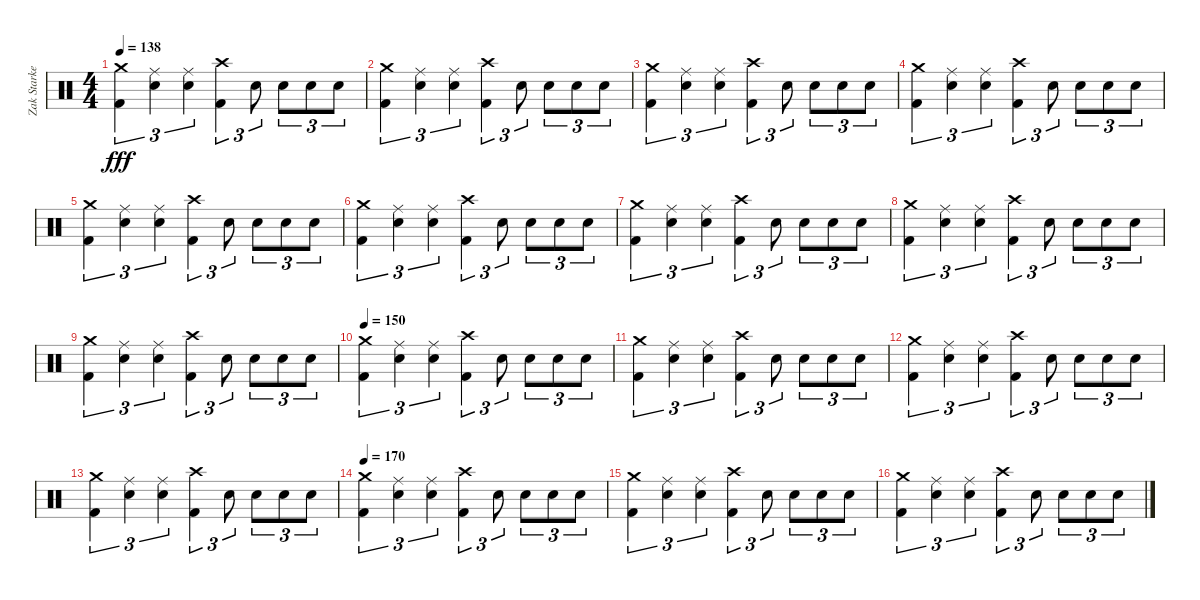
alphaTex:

\track ("Zak Starkey" "Zak Starke") {instrument percussion}
\staff {score}
\articulation defaults
\ts (4 4)
\tempo 138
\clef neutral
\ks c
("Crash medium (hit)" "Kick (hit) 2").4{tu (3 2) dy fff} ("Ride (middle)" "Snare (hit) 2").4{tu (3 2)} ("Ride (middle)" "Snare (hit) 2").4{tu (3 2)} ("Crash high (hit)" "Kick (hit) 2").4{tu (3 2)} "Snare (hit) 2".8{tu (3 2)} "Snare (hit) 2".8{tu (3 2)} "Snare (hit) 2".8{tu (3 2)} "Snare (hit) 2".8{tu (3 2)} |
("Crash medium (hit)" "Kick (hit) 2").4{tu (3 2)} ("Ride (middle)" "Snare (hit) 2").4{tu (3 2)} ("Ride (middle)" "Snare (hit) 2").4{tu (3 2)} ("Crash high (hit)" "Kick (hit) 2").4{tu (3 2)} "Snare (hit) 2".8{tu (3 2)} "Snare (hit) 2".8{tu (3 2)} "Snare (hit) 2".8{tu (3 2)} "Snare (hit) 2".8{tu (3 2)} |
("Crash medium (hit)" "Kick (hit) 2").4{tu (3 2)} ("Ride (middle)" "Snare (hit) 2").4{tu (3 2)} ("Ride (middle)" "Snare (hit) 2").4{tu (3 2)} ("Crash high (hit)" "Kick (hit) 2").4{tu (3 2)} "Snare (hit) 2".8{tu (3 2)} "Snare (hit) 2".8{tu (3 2)} "Snare (hit) 2".8{tu (3 2)} "Snare (hit) 2".8{tu (3 2)} |
("Crash medium (hit)" "Kick (hit) 2").4{tu (3 2)} ("Ride (middle)" "Snare (hit) 2").4{tu (3 2)} ("Ride (middle)" "Snare (hit) 2").4{tu (3 2)} ("Crash high (hit)" "Kick (hit) 2").4{tu (3 2)} "Snare (hit) 2".8{tu (3 2)} "Snare (hit) 2".8{tu (3 2)} "Snare (hit) 2".8{tu (3 2)} "Snare (hit) 2".8{tu (3 2)} |
("Crash medium (hit)" "Kick (hit) 2").4{tu (3 2)} ("Ride (middle)" "Snare (hit) 2").4{tu (3 2)} ("Ride (middle)" "Snare (hit) 2").4{tu (3 2)} ("Crash high (hit)" "Kick (hit) 2").4{tu (3 2)} "Snare (hit) 2".8{tu (3 2)} "Snare (hit) 2".8{tu (3 2)} "Snare (hit) 2".8{tu (3 2)} "Snare (hit) 2".8{tu (3 2)} |
("Crash medium (hit)" "Kick (hit) 2").4{tu (3 2)} ("Ride (middle)" "Snare (hit) 2").4{tu (3 2)} ("Ride (middle)" "Snare (hit) 2").4{tu (3 2)} ("Crash high (hit)" "Kick (hit) 2").4{tu (3 2)} "Snare (hit) 2".8{tu (3 2)} "Snare (hit) 2".8{tu (3 2)} "Snare (hit) 2".8{tu (3 2)} "Snare (hit) 2".8{tu (3 2)} |
("Crash medium (hit)" "Kick (hit) 2").4{tu (3 2)} ("Ride (middle)" "Snare (hit) 2").4{tu (3 2)} ("Ride (middle)" "Snare (hit) 2").4{tu (3 2)} ("Crash high (hit)" "Kick (hit) 2").4{tu (3 2)} "Snare (hit) 2".8{tu (3 2)} "Snare (hit) 2".8{tu (3 2)} "Snare (hit) 2".8{tu (3 2)} "Snare (hit) 2".8{tu (3 2)} |
("Crash medium (hit)" "Kick (hit) 2").4{tu (3 2)} ("Ride (middle)" "Snare (hit) 2").4{tu (3 2)} ("Ride (middle)" "Snare (hit) 2").4{tu (3 2)} ("Crash high (hit)" "Kick (hit) 2").4{tu (3 2)} "Snare (hit) 2".8{tu (3 2)} "Snare (hit) 2".8{tu (3 2)} "Snare (hit) 2".8{tu (3 2)} "Snare (hit) 2".8{tu (3 2)} |
("Crash medium (hit)" "Kick (hit) 2").4{tu (3 2)} ("Ride (middle)" "Snare (hit) 2").4{tu (3 2)} ("Ride (middle)" "Snare (hit) 2").4{tu (3 2)} ("Crash high (hit)" "Kick (hit) 2").4{tu (3 2)} "Snare (hit) 2".8{tu (3 2)} "Snare (hit) 2".8{tu (3 2)} "Snare (hit) 2".8{tu (3 2)} "Snare (hit) 2".8{tu (3 2)} |
\tempo 150
("Crash medium (hit)" "Kick (hit) 2").4{tu (3 2)} ("Ride (middle)" "Snare (hit) 2").4{tu (3 2)} ("Ride (middle)" "Snare (hit) 2").4{tu (3 2)} ("Crash high (hit)" "Kick (hit) 2").4{tu (3 2)} "Snare (hit) 2".8{tu (3 2)} "Snare (hit) 2".8{tu (3 2)} "Snare (hit) 2".8{tu (3 2)} "Snare (hit) 2".8{tu (3 2)} |
("Crash medium (hit)" "Kick (hit) 2").4{tu (3 2)} ("Ride (middle)" "Snare (hit) 2").4{tu (3 2)} ("Ride (middle)" "Snare (hit) 2").4{tu (3 2)} ("Crash high (hit)" "Kick (hit) 2").4{tu (3 2)} "Snare (hit) 2".8{tu (3 2)} "Snare (hit) 2".8{tu (3 2)} "Snare (hit) 2".8{tu (3 2)} "Snare (hit) 2".8{tu (3 2)} |
("Crash medium (hit)" "Kick (hit) 2").4{tu (3 2)} ("Ride (middle)" "Snare (hit) 2").4{tu (3 2)} ("Ride (middle)" "Snare (hit) 2").4{tu (3 2)} ("Crash high (hit)" "Kick (hit) 2").4{tu (3 2)} "Snare (hit) 2".8{tu (3 2)} "Snare (hit) 2".8{tu (3 2)} "Snare (hit) 2".8{tu (3 2)} "Snare (hit) 2".8{tu (3 2)} |
("Crash medium (hit)" "Kick (hit) 2").4{tu (3 2)} ("Ride (middle)" "Snare (hit) 2").4{tu (3 2)} ("Ride (middle)" "Snare (hit) 2").4{tu (3 2)} ("Crash high (hit)" "Kick (hit) 2").4{tu (3 2)} "Snare (hit) 2".8{tu (3 2)} "Snare (hit) 2".8{tu (3 2)} "Snare (hit) 2".8{tu (3 2)} "Snare (hit) 2".8{tu (3 2)} |
\tempo 170
("Crash medium (hit)" "Kick (hit) 2").4{tu (3 2)} ("Ride (middle)" "Snare (hit) 2").4{tu (3 2)} ("Ride (middle)" "Snare (hit) 2").4{tu (3 2)} ("Crash high (hit)" "Kick (hit) 2").4{tu (3 2)} "Snare (hit) 2".8{tu (3 2)} "Snare (hit) 2".8{tu (3 2)} "Snare (hit) 2".8{tu (3 2)} "Snare (hit) 2".8{tu (3 2)} |
("Crash medium (hit)" "Kick (hit) 2").4{tu (3 2)} ("Ride (middle)" "Snare (hit) 2").4{tu (3 2)} ("Ride (middle)" "Snare (hit) 2").4{tu (3 2)} ("Crash high (hit)" "Kick (hit) 2").4{tu (3 2)} "Snare (hit) 2".8{tu (3 2)} "Snare (hit) 2".8{tu (3 2)} "Snare (hit) 2".8{tu (3 2)} "Snare (hit) 2".8{tu (3 2)} |
("Crash medium (hit)" "Kick (hit) 2").4{tu (3 2)} ("Ride (middle)" "Snare (hit) 2").4{tu (3 2)} ("Ride (middle)" "Snare (hit) 2").4{tu (3 2)} ("Crash high (hit)" "Kick (hit) 2").4{tu (3 2)} "Snare (hit) 2".8{tu (3 2)} "Snare (hit) 2".8{tu (3 2)} "Snare (hit) 2".8{tu (3 2)} "Snare (hit) 2".8{tu (3 2)}
